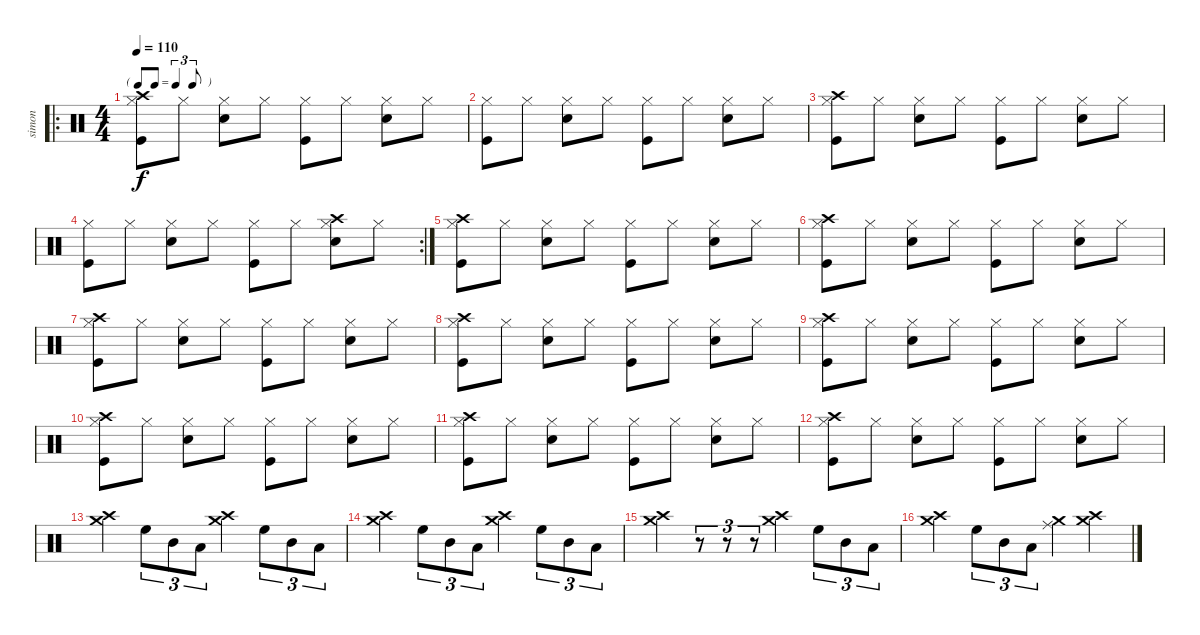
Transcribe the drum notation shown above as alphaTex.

\track ("simon" "simon") {instrument percussion}
\staff {score}
\articulation defaults
\ro
\ts (4 4)
\tf triplet8th
\tempo 110
\clef neutral
\ks c
("Hi-Hat (closed)" "Kick (hit)" "Crash high (hit)").8{dy f} "Hi-Hat (closed)".8 ("Hi-Hat (closed)" "Snare (hit) 2").8 "Hi-Hat (closed)".8 ("Hi-Hat (closed)" "Kick (hit)").8 "Hi-Hat (closed)".8 ("Hi-Hat (closed)" "Snare (hit) 2").8 "Hi-Hat (closed)".8 |
("Hi-Hat (closed)" "Kick (hit)").8 "Hi-Hat (closed)".8 ("Hi-Hat (closed)" "Snare (hit) 2").8 "Hi-Hat (closed)".8 ("Hi-Hat (closed)" "Kick (hit)").8 "Hi-Hat (closed)".8 ("Hi-Hat (closed)" "Snare (hit) 2").8 "Hi-Hat (closed)".8 |
("Hi-Hat (closed)" "Kick (hit)" "Crash high (hit)").8 "Hi-Hat (closed)".8 ("Hi-Hat (closed)" "Snare (hit) 2").8 "Hi-Hat (closed)".8 ("Hi-Hat (closed)" "Kick (hit)").8 "Hi-Hat (closed)".8 ("Hi-Hat (closed)" "Snare (hit) 2").8 "Hi-Hat (closed)".8 |
\rc 2
("Hi-Hat (closed)" "Kick (hit)").8 "Hi-Hat (closed)".8 ("Hi-Hat (closed)" "Snare (hit) 2").8 "Hi-Hat (closed)".8 ("Hi-Hat (closed)" "Kick (hit)").8 "Hi-Hat (closed)".8 ("Hi-Hat (closed)" "Snare (hit) 2" "Crash high (hit)").8 "Hi-Hat (closed)".8 |
("Hi-Hat (closed)" "Kick (hit)" "Crash high (hit)").8 "Hi-Hat (closed)".8 ("Hi-Hat (closed)" "Snare (hit) 2").8 "Hi-Hat (closed)".8 ("Hi-Hat (closed)" "Kick (hit)").8 "Hi-Hat (closed)".8 ("Hi-Hat (closed)" "Snare (hit) 2").8 "Hi-Hat (closed)".8 |
("Hi-Hat (closed)" "Kick (hit)" "Crash high (hit)").8 "Hi-Hat (closed)".8 ("Hi-Hat (closed)" "Snare (hit) 2").8 "Hi-Hat (closed)".8 ("Hi-Hat (closed)" "Kick (hit)").8 "Hi-Hat (closed)".8 ("Hi-Hat (closed)" "Snare (hit) 2").8 "Hi-Hat (closed)".8 |
("Hi-Hat (closed)" "Kick (hit)" "Crash high (hit)").8 "Hi-Hat (closed)".8 ("Hi-Hat (closed)" "Snare (hit) 2").8 "Hi-Hat (closed)".8 ("Hi-Hat (closed)" "Kick (hit)").8 "Hi-Hat (closed)".8 ("Hi-Hat (closed)" "Snare (hit) 2").8 "Hi-Hat (closed)".8 |
("Hi-Hat (closed)" "Kick (hit)" "Crash high (hit)").8 "Hi-Hat (closed)".8 ("Hi-Hat (closed)" "Snare (hit) 2").8 "Hi-Hat (closed)".8 ("Hi-Hat (closed)" "Kick (hit)").8 "Hi-Hat (closed)".8 ("Hi-Hat (closed)" "Snare (hit) 2").8 "Hi-Hat (closed)".8 |
("Hi-Hat (closed)" "Kick (hit)" "Crash high (hit)").8 "Hi-Hat (closed)".8 ("Hi-Hat (closed)" "Snare (hit) 2").8 "Hi-Hat (closed)".8 ("Hi-Hat (closed)" "Kick (hit)").8 "Hi-Hat (closed)".8 ("Hi-Hat (closed)" "Snare (hit) 2").8 "Hi-Hat (closed)".8 |
("Hi-Hat (closed)" "Kick (hit)" "Crash high (hit)").8 "Hi-Hat (closed)".8 ("Hi-Hat (closed)" "Snare (hit) 2").8 "Hi-Hat (closed)".8 ("Hi-Hat (closed)" "Kick (hit)").8 "Hi-Hat (closed)".8 ("Hi-Hat (closed)" "Snare (hit) 2").8 "Hi-Hat (closed)".8 |
("Hi-Hat (closed)" "Kick (hit)" "Crash high (hit)").8 "Hi-Hat (closed)".8 ("Hi-Hat (closed)" "Snare (hit) 2").8 "Hi-Hat (closed)".8 ("Hi-Hat (closed)" "Kick (hit)").8 "Hi-Hat (closed)".8 ("Hi-Hat (closed)" "Snare (hit) 2").8 "Hi-Hat (closed)".8 |
("Hi-Hat (closed)" "Kick (hit)" "Crash high (hit)").8 "Hi-Hat (closed)".8 ("Hi-Hat (closed)" "Snare (hit) 2").8 "Hi-Hat (closed)".8 ("Hi-Hat (closed)" "Kick (hit)").8 "Hi-Hat (closed)".8 ("Hi-Hat (closed)" "Snare (hit) 2").8 "Hi-Hat (closed)".8 |
("Crash high (hit)" "Crash medium (hit)").4 "High Floor Tom (hit)".8{tu (3 2)} "Mid Tom (hit)".8{tu (3 2)} "Low Tom (hit)".8{tu (3 2)} ("Crash high (hit)" "Crash medium (hit)").4 "High Floor Tom (hit)".8{tu (3 2)} "Mid Tom (hit)".8{tu (3 2)} "Low Tom (hit)".8{tu (3 2)} |
("Crash high (hit)" "Crash medium (hit)").4 "High Floor Tom (hit)".8{tu (3 2)} "Mid Tom (hit)".8{tu (3 2)} "Low Tom (hit)".8{tu (3 2)} ("Crash high (hit)" "Crash medium (hit)").4 "High Floor Tom (hit)".8{tu (3 2)} "Mid Tom (hit)".8{tu (3 2)} "Low Tom (hit)".8{tu (3 2)} |
("Crash high (hit)" "Crash medium (hit)").4 r.8{tu (3 2)} r.8{tu (3 2)} r.8{tu (3 2)} ("Crash high (hit)" "Crash medium (hit)").4 "High Floor Tom (hit)".8{tu (3 2)} "Mid Tom (hit)".8{tu (3 2)} "Low Tom (hit)".8{tu (3 2)} |
("Crash high (hit)" "Crash medium (hit)").4 "High Floor Tom (hit)".8{tu (3 2)} "Mid Tom (hit)".8{tu (3 2)} "Low Tom (hit)".8{tu (3 2)} ("Ride (middle)" "Crash medium (hit)").4 ("Crash high (hit)" "Crash medium (hit)").4
